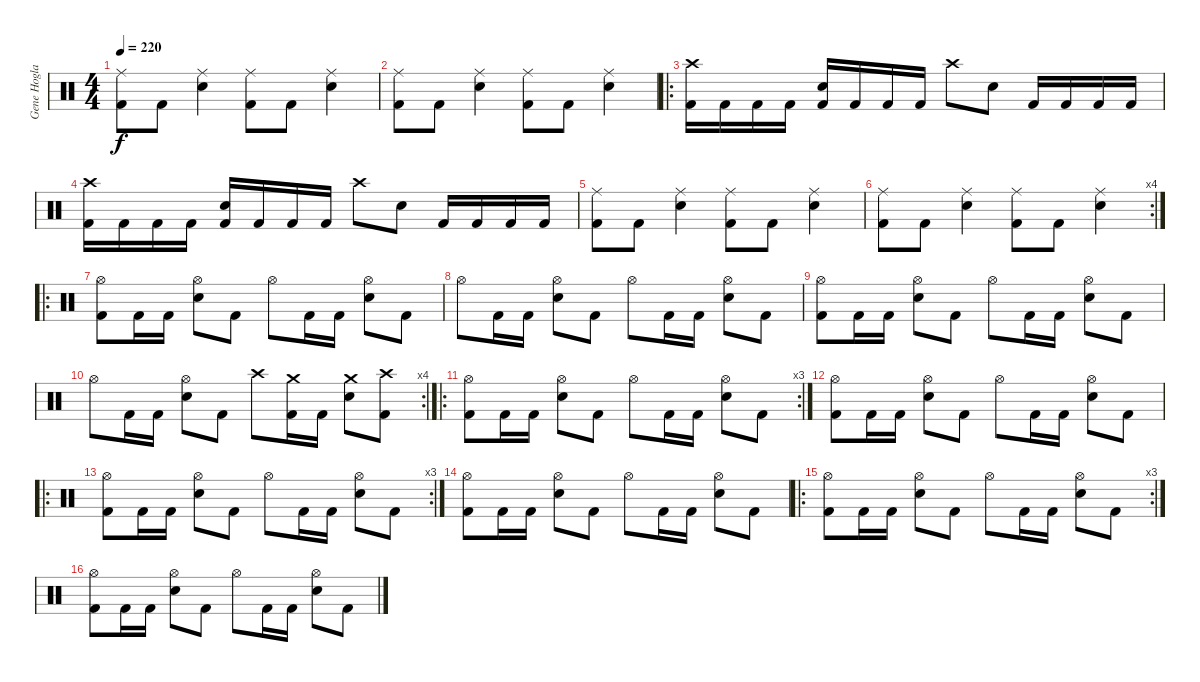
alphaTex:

\track ("Gene Hoglan" "Gene Hogla") {instrument percussion}
\staff {score}
\articulation defaults
\ts (4 4)
\tempo 220
\clef neutral
\ks c
("Ride (middle)" "Kick (hit) 2").8{dy f} "Kick (hit) 2".8 ("Ride (middle)" "Electric Snare (hit)").4 ("Ride (middle)" "Kick (hit) 2").8 "Kick (hit) 2".8 ("Ride (middle)" "Electric Snare (hit)").4 |
("Ride (middle)" "Kick (hit) 2").8 "Kick (hit) 2".8 ("Ride (middle)" "Electric Snare (hit)").4 ("Ride (middle)" "Kick (hit) 2").8 "Kick (hit) 2".8 ("Ride (middle)" "Electric Snare (hit)").4 |
\ro
("Crash high (hit)" "Kick (hit) 2").16 "Kick (hit) 2".16 "Kick (hit) 2".16 "Kick (hit) 2".16 ("Electric Snare (hit)" "Kick (hit) 2").16 "Kick (hit) 2".16 "Kick (hit) 2".16 "Kick (hit) 2".16 "Crash high (hit)".8 "Electric Snare (hit)".8 "Kick (hit) 2".16 "Kick (hit) 2".16 "Kick (hit) 2".16 "Kick (hit) 2".16 |
("Crash high (hit)" "Kick (hit) 2").16 "Kick (hit) 2".16 "Kick (hit) 2".16 "Kick (hit) 2".16 ("Electric Snare (hit)" "Kick (hit) 2").16 "Kick (hit) 2".16 "Kick (hit) 2".16 "Kick (hit) 2".16 "Crash high (hit)".8 "Electric Snare (hit)".8 "Kick (hit) 2".16 "Kick (hit) 2".16 "Kick (hit) 2".16 "Kick (hit) 2".16 |
("Ride (middle)" "Kick (hit) 2").8 "Kick (hit) 2".8 ("Ride (middle)" "Electric Snare (hit)").4 ("Ride (middle)" "Kick (hit) 2").8 "Kick (hit) 2".8 ("Ride (middle)" "Electric Snare (hit)").4 |
\rc 4
("Ride (middle)" "Kick (hit) 2").8 "Kick (hit) 2".8 ("Ride (middle)" "Electric Snare (hit)").4 ("Ride (middle)" "Kick (hit) 2").8 "Kick (hit) 2".8 ("Ride (middle)" "Electric Snare (hit)").4 |
\ro
("Hi-Hat (open)" "Kick (hit) 2").8 "Kick (hit) 2".16 "Kick (hit) 2".16 ("Hi-Hat (open)" "Electric Snare (hit)").8 "Kick (hit) 2".8 "Hi-Hat (open)".8 "Kick (hit) 2".16 "Kick (hit) 2".16 ("Hi-Hat (open)" "Electric Snare (hit)").8 "Kick (hit) 2".8 |
"Hi-Hat (open)".8 "Kick (hit) 2".16 "Kick (hit) 2".16 ("Hi-Hat (open)" "Electric Snare (hit)").8 "Kick (hit) 2".8 "Hi-Hat (open)".8 "Kick (hit) 2".16 "Kick (hit) 2".16 ("Hi-Hat (open)" "Electric Snare (hit)").8 "Kick (hit) 2".8 |
("Hi-Hat (open)" "Kick (hit) 2").8 "Kick (hit) 2".16 "Kick (hit) 2".16 ("Hi-Hat (open)" "Electric Snare (hit)").8 "Kick (hit) 2".8 "Hi-Hat (open)".8 "Kick (hit) 2".16 "Kick (hit) 2".16 ("Hi-Hat (open)" "Electric Snare (hit)").8 "Kick (hit) 2".8 |
\rc 4 "Hi-Hat (open)".8 "Kick (hit) 2".16 "Kick (hit) 2".16
("Hi-Hat (open)" "Electric Snare (hit)").8 "Kick (hit) 2".8 "Crash high (hit)".8 ("Crash medium (hit)" "Kick (hit) 2").16 "Kick (hit) 2".16 ("Crash medium (hit)" "Electric Snare (hit)").8 ("Crash high (hit)" "Kick (hit) 2").8 |
\ro
\rc 3
("Hi-Hat (open)" "Kick (hit) 2").8 "Kick (hit) 2".16 "Kick (hit) 2".16 ("Hi-Hat (open)" "Electric Snare (hit)").8 "Kick (hit) 2".8 "Hi-Hat (open)".8 "Kick (hit) 2".16 "Kick (hit) 2".16 ("Hi-Hat (open)" "Electric Snare (hit)").8 "Kick (hit) 2".8 |
("Hi-Hat (open)" "Kick (hit) 2").8 "Kick (hit) 2".16 "Kick (hit) 2".16 ("Hi-Hat (open)" "Electric Snare (hit)").8 "Kick (hit) 2".8 "Hi-Hat (open)".8 "Kick (hit) 2".16 "Kick (hit) 2".16 ("Hi-Hat (open)" "Electric Snare (hit)").8 "Kick (hit) 2".8 |
\ro
\rc 3
("Hi-Hat (open)" "Kick (hit) 2").8 "Kick (hit) 2".16 "Kick (hit) 2".16 ("Hi-Hat (open)" "Electric Snare (hit)").8 "Kick (hit) 2".8 "Hi-Hat (open)".8 "Kick (hit) 2".16 "Kick (hit) 2".16 ("Hi-Hat (open)" "Electric Snare (hit)").8 "Kick (hit) 2".8 |
("Hi-Hat (open)" "Kick (hit) 2").8 "Kick (hit) 2".16 "Kick (hit) 2".16 ("Hi-Hat (open)" "Electric Snare (hit)").8 "Kick (hit) 2".8 "Hi-Hat (open)".8 "Kick (hit) 2".16 "Kick (hit) 2".16 ("Hi-Hat (open)" "Electric Snare (hit)").8 "Kick (hit) 2".8 |
\ro
\rc 3
("Hi-Hat (open)" "Kick (hit) 2").8 "Kick (hit) 2".16 "Kick (hit) 2".16 ("Hi-Hat (open)" "Electric Snare (hit)").8 "Kick (hit) 2".8 "Hi-Hat (open)".8 "Kick (hit) 2".16 "Kick (hit) 2".16 ("Hi-Hat (open)" "Electric Snare (hit)").8 "Kick (hit) 2".8 |
("Hi-Hat (open)" "Kick (hit) 2").8 "Kick (hit) 2".16 "Kick (hit) 2".16 ("Hi-Hat (open)" "Electric Snare (hit)").8 "Kick (hit) 2".8 "Hi-Hat (open)".8 "Kick (hit) 2".16 "Kick (hit) 2".16 ("Hi-Hat (open)" "Electric Snare (hit)").8 "Kick (hit) 2".8
